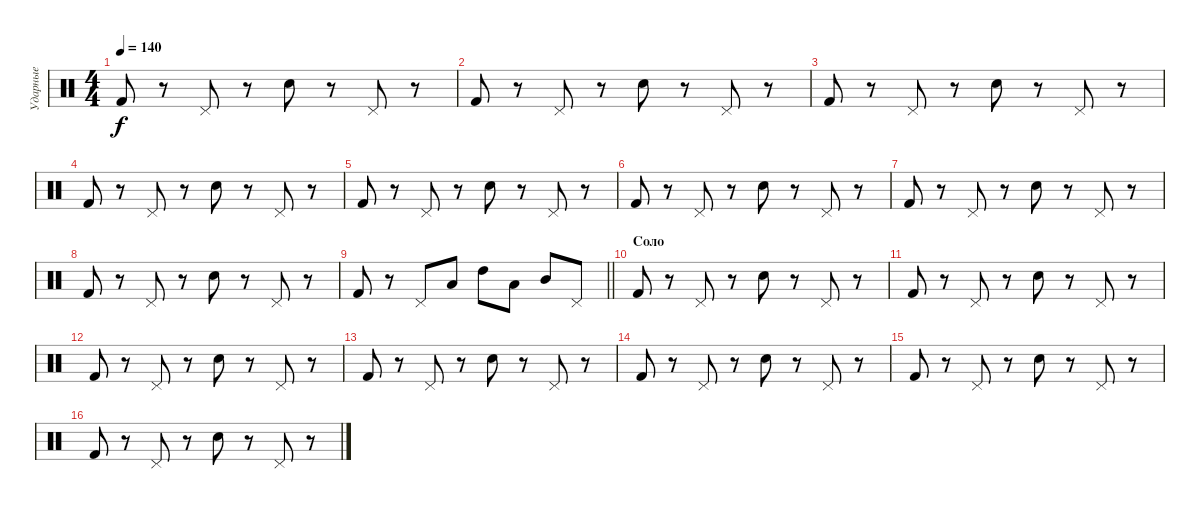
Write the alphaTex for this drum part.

\track ("Ударные" "Ударные") {instrument percussion}
\staff {score}
\articulation defaults
\ts (4 4)
\tempo 140
\clef neutral
\ks c "Kick (hit) 2".8{dy f}
r.8 "Pedal Hi-Hat (hit)".8 r.8 "Snare (hit) 2".8 r.8 "Pedal Hi-Hat (hit)".8 r.8 |
"Kick (hit) 2".8 r.8 "Pedal Hi-Hat (hit)".8 r.8 "Snare (hit) 2".8 r.8 "Pedal Hi-Hat (hit)".8 r.8 |
"Kick (hit) 2".8 r.8 "Pedal Hi-Hat (hit)".8 r.8 "Snare (hit) 2".8 r.8 "Pedal Hi-Hat (hit)".8 r.8 |
"Kick (hit) 2".8 r.8 "Pedal Hi-Hat (hit)".8 r.8 "Snare (hit) 2".8 r.8 "Pedal Hi-Hat (hit)".8 r.8 |
"Kick (hit) 2".8 r.8 "Pedal Hi-Hat (hit)".8 r.8 "Snare (hit) 2".8 r.8 "Pedal Hi-Hat (hit)".8 r.8 |
"Kick (hit) 2".8 r.8 "Pedal Hi-Hat (hit)".8 r.8 "Snare (hit) 2".8 r.8 "Pedal Hi-Hat (hit)".8 r.8 |
"Kick (hit) 2".8 r.8 "Pedal Hi-Hat (hit)".8 r.8 "Snare (hit) 2".8 r.8 "Pedal Hi-Hat (hit)".8 r.8 |
"Kick (hit) 2".8 r.8 "Pedal Hi-Hat (hit)".8 r.8 "Snare (hit) 2".8 r.8 "Pedal Hi-Hat (hit)".8 r.8 |
\barLineRight lightlight "Kick (hit) 2".8
r.8 "Pedal Hi-Hat (hit)".8 "Low Tom (hit)".8 "High Tom (hit)".8 "Low Tom (hit)".8 "Mid Tom (hit)".8 "Pedal Hi-Hat (hit)".8 |
\section ("" "Соло")
"Kick (hit) 2".8 r.8 "Pedal Hi-Hat (hit)".8 r.8 "Snare (hit) 2".8 r.8 "Pedal Hi-Hat (hit)".8 r.8 |
"Kick (hit) 2".8 r.8 "Pedal Hi-Hat (hit)".8 r.8 "Snare (hit) 2".8 r.8 "Pedal Hi-Hat (hit)".8 r.8 |
"Kick (hit) 2".8 r.8 "Pedal Hi-Hat (hit)".8 r.8 "Snare (hit) 2".8 r.8 "Pedal Hi-Hat (hit)".8 r.8 |
"Kick (hit) 2".8 r.8 "Pedal Hi-Hat (hit)".8 r.8 "Snare (hit) 2".8 r.8 "Pedal Hi-Hat (hit)".8 r.8 |
"Kick (hit) 2".8 r.8 "Pedal Hi-Hat (hit)".8 r.8 "Snare (hit) 2".8 r.8 "Pedal Hi-Hat (hit)".8 r.8 |
"Kick (hit) 2".8 r.8 "Pedal Hi-Hat (hit)".8 r.8 "Snare (hit) 2".8 r.8 "Pedal Hi-Hat (hit)".8 r.8 |
"Kick (hit) 2".8 r.8 "Pedal Hi-Hat (hit)".8 r.8 "Snare (hit) 2".8 r.8 "Pedal Hi-Hat (hit)".8 r.8
